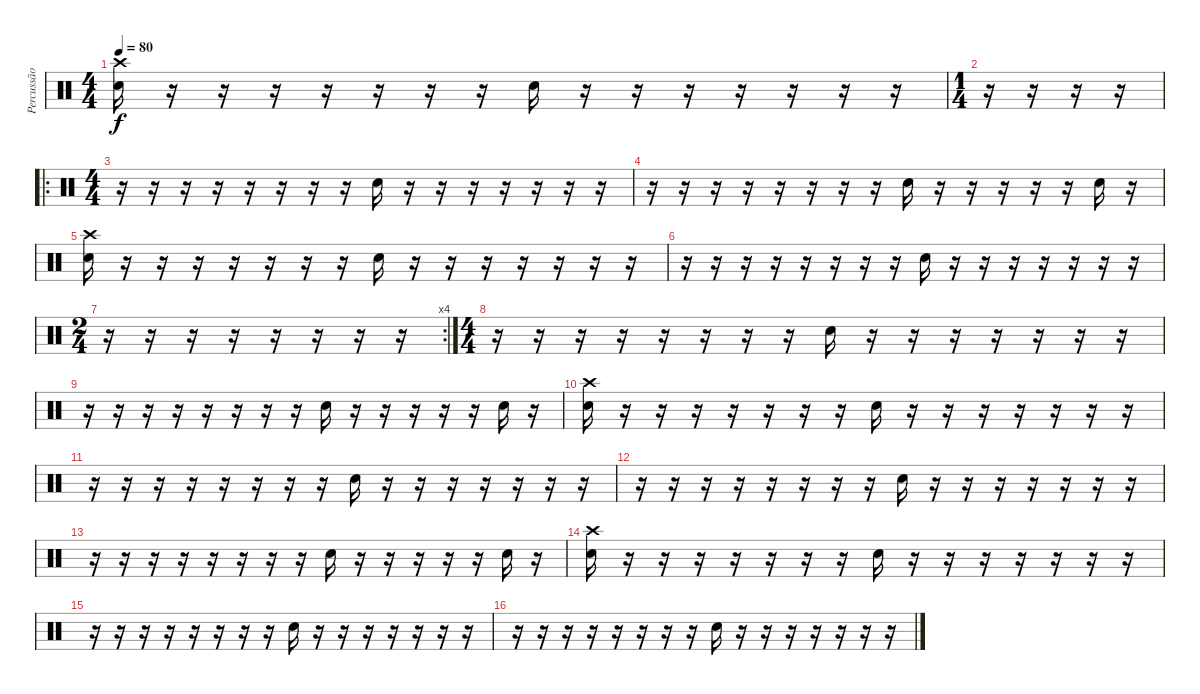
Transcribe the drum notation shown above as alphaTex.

\track ("Percussão" "Percussão") {instrument percussion}
\staff {score}
\articulation defaults
\ts (4 4)
\tempo 80
\clef neutral
\ks c
("Crash high (hit)" "Electric Snare (hit)").16{dy f} r.16 r.16 r.16 r.16 r.16 r.16 r.16 "Electric Snare (hit)".16 r.16 r.16 r.16 r.16 r.16 r.16 r.16 |
\ts (1 4)
r.16 r.16 r.16 r.16 |
\ro
\ts (4 4)
r.16 r.16 r.16 r.16 r.16 r.16 r.16 r.16 "Electric Snare (hit)".16 r.16 r.16 r.16 r.16 r.16 r.16 r.16 |
r.16 r.16 r.16 r.16 r.16 r.16 r.16 r.16 "Electric Snare (hit)".16 r.16 r.16 r.16 r.16 r.16 "Electric Snare (hit)".16 r.16 |
("Crash high (hit)" "Electric Snare (hit)").16 r.16 r.16 r.16 r.16 r.16 r.16 r.16 "Electric Snare (hit)".16 r.16 r.16 r.16 r.16 r.16 r.16 r.16 |
r.16 r.16 r.16 r.16 r.16 r.16 r.16 r.16 "Electric Snare (hit)".16 r.16 r.16 r.16 r.16 r.16 r.16 r.16 |
\rc 4
\ts (2 4)
r.16 r.16 r.16 r.16 r.16 r.16 r.16 r.16 |
\ts (4 4)
r.16 r.16 r.16 r.16 r.16 r.16 r.16 r.16 "Electric Snare (hit)".16 r.16 r.16 r.16 r.16 r.16 r.16 r.16 |
r.16 r.16 r.16 r.16 r.16 r.16 r.16 r.16 "Electric Snare (hit)".16 r.16 r.16 r.16 r.16 r.16 "Electric Snare (hit)".16 r.16 |
("Crash high (hit)" "Electric Snare (hit)").16 r.16 r.16 r.16 r.16 r.16 r.16 r.16 "Electric Snare (hit)".16 r.16 r.16 r.16 r.16 r.16 r.16 r.16 |
r.16 r.16 r.16 r.16 r.16 r.16 r.16 r.16 "Electric Snare (hit)".16 r.16 r.16 r.16 r.16 r.16 r.16 r.16 |
r.16 r.16 r.16 r.16 r.16 r.16 r.16 r.16 "Electric Snare (hit)".16 r.16 r.16 r.16 r.16 r.16 r.16 r.16 |
r.16 r.16 r.16 r.16 r.16 r.16 r.16 r.16 "Electric Snare (hit)".16 r.16 r.16 r.16 r.16 r.16 "Electric Snare (hit)".16 r.16 |
("Crash high (hit)" "Electric Snare (hit)").16 r.16 r.16 r.16 r.16 r.16 r.16 r.16 "Electric Snare (hit)".16 r.16 r.16 r.16 r.16 r.16 r.16 r.16 |
r.16 r.16 r.16 r.16 r.16 r.16 r.16 r.16 "Electric Snare (hit)".16 r.16 r.16 r.16 r.16 r.16 r.16 r.16 |
r.16 r.16 r.16 r.16 r.16 r.16 r.16 r.16 "Electric Snare (hit)".16 r.16 r.16 r.16 r.16 r.16 r.16 r.16
